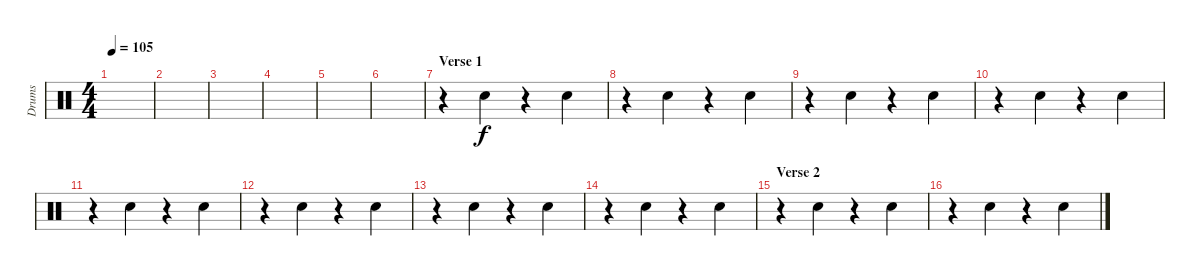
\track ("Drums" "Drums") {instrument percussion}
\staff {score}
\articulation defaults
\ts (4 4)
\tempo 105
\clef neutral
\ks c
|
|
|
|
|
|
\section ("" "Verse 1")
r.4 "Hand Clap (hit)".4 r.4 "Hand Clap (hit)".4 |
r.4 "Hand Clap (hit)".4 r.4 "Hand Clap (hit)".4 |
r.4 "Hand Clap (hit)".4 r.4 "Hand Clap (hit)".4 |
r.4 "Hand Clap (hit)".4 r.4 "Hand Clap (hit)".4 |
r.4 "Hand Clap (hit)".4 r.4 "Hand Clap (hit)".4 |
r.4 "Hand Clap (hit)".4 r.4 "Hand Clap (hit)".4 |
r.4 "Hand Clap (hit)".4 r.4 "Hand Clap (hit)".4 |
r.4 "Hand Clap (hit)".4 r.4 "Hand Clap (hit)".4 |
\section ("" "Verse 2")
r.4 "Hand Clap (hit)".4 r.4 "Hand Clap (hit)".4 |
r.4 "Hand Clap (hit)".4 r.4 "Hand Clap (hit)".4
